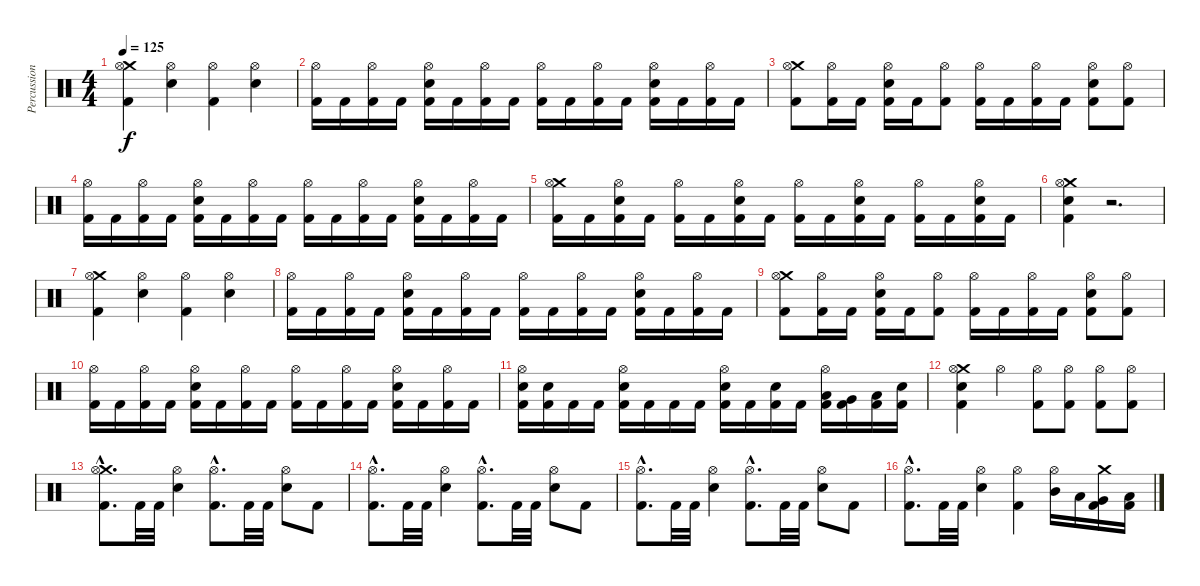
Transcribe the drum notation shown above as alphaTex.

\track ("Percussion" "Percussion") {instrument percussion}
\staff {score}
\articulation defaults
\ts (4 4)
\tempo 125
\clef neutral
\ks c
("Crash medium (hit)" "Hi-Hat (open)" "Kick (hit) 2").4{dy f} ("Hi-Hat (open)" "Electric Snare (hit)").4 ("Hi-Hat (open)" "Kick (hit) 2").4 ("Hi-Hat (open)" "Electric Snare (hit)").4 |
("Hi-Hat (open)" "Kick (hit) 2").16 "Kick (hit) 2".16 ("Hi-Hat (open)" "Kick (hit) 2").16 "Kick (hit) 2".16 ("Hi-Hat (open)" "Electric Snare (hit)" "Kick (hit) 2").16 "Kick (hit) 2".16 ("Hi-Hat (open)" "Kick (hit) 2").16 "Kick (hit) 2".16 ("Hi-Hat (open)" "Kick (hit) 2").16 "Kick (hit) 2".16 ("Hi-Hat (open)" "Kick (hit) 2").16 "Kick (hit) 2".16 ("Hi-Hat (open)" "Electric Snare (hit)" "Kick (hit) 2").16 "Kick (hit) 2".16 ("Hi-Hat (open)" "Kick (hit) 2").16 "Kick (hit) 2".16 |
("Crash medium (hit)" "Hi-Hat (open)" "Kick (hit) 2").8 ("Hi-Hat (open)" "Kick (hit) 2").16 "Kick (hit) 2".16 ("Hi-Hat (open)" "Electric Snare (hit)" "Kick (hit) 2").16 "Kick (hit) 2".16 ("Hi-Hat (open)" "Kick (hit) 2").8 ("Hi-Hat (open)" "Kick (hit) 2").16 "Kick (hit) 2".16 ("Hi-Hat (open)" "Kick (hit) 2").16 "Kick (hit) 2".16 ("Hi-Hat (open)" "Electric Snare (hit)" "Kick (hit) 2").8 ("Hi-Hat (open)" "Kick (hit) 2").8 |
("Hi-Hat (open)" "Kick (hit) 2").16 "Kick (hit) 2".16 ("Hi-Hat (open)" "Kick (hit) 2").16 "Kick (hit) 2".16 ("Hi-Hat (open)" "Electric Snare (hit)" "Kick (hit) 2").16 "Kick (hit) 2".16 ("Hi-Hat (open)" "Kick (hit) 2").16 "Kick (hit) 2".16 ("Hi-Hat (open)" "Kick (hit) 2").16 "Kick (hit) 2".16 ("Hi-Hat (open)" "Kick (hit) 2").16 "Kick (hit) 2".16 ("Hi-Hat (open)" "Electric Snare (hit)" "Kick (hit) 2").16 "Kick (hit) 2".16 ("Hi-Hat (open)" "Kick (hit) 2").16 "Kick (hit) 2".16 |
("Crash medium (hit)" "Hi-Hat (open)" "Kick (hit) 2").16 "Kick (hit) 2".16 ("Hi-Hat (open)" "Electric Snare (hit)" "Kick (hit) 2").16 "Kick (hit) 2".16 ("Hi-Hat (open)" "Kick (hit) 2").16 "Kick (hit) 2".16 ("Hi-Hat (open)" "Electric Snare (hit)" "Kick (hit) 2").16 "Kick (hit) 2".16 ("Hi-Hat (open)" "Kick (hit) 2").16 "Kick (hit) 2".16 ("Hi-Hat (open)" "Electric Snare (hit)" "Kick (hit) 2").16 "Kick (hit) 2".16 ("Hi-Hat (open)" "Kick (hit) 2").16 "Kick (hit) 2".16 ("Hi-Hat (open)" "Electric Snare (hit)" "Kick (hit) 2").16 "Kick (hit) 2".16 |
("Crash medium (hit)" "Hi-Hat (open)" "Electric Snare (hit)" "Kick (hit) 2").4 r.2{d} |
("Crash medium (hit)" "Hi-Hat (open)" "Kick (hit) 2").4 ("Hi-Hat (open)" "Electric Snare (hit)").4 ("Hi-Hat (open)" "Kick (hit) 2").4 ("Hi-Hat (open)" "Electric Snare (hit)").4 |
("Hi-Hat (open)" "Kick (hit) 2").16 "Kick (hit) 2".16 ("Hi-Hat (open)" "Kick (hit) 2").16 "Kick (hit) 2".16 ("Hi-Hat (open)" "Electric Snare (hit)" "Kick (hit) 2").16 "Kick (hit) 2".16 ("Hi-Hat (open)" "Kick (hit) 2").16 "Kick (hit) 2".16 ("Hi-Hat (open)" "Kick (hit) 2").16 "Kick (hit) 2".16 ("Hi-Hat (open)" "Kick (hit) 2").16 "Kick (hit) 2".16 ("Hi-Hat (open)" "Electric Snare (hit)" "Kick (hit) 2").16 "Kick (hit) 2".16 ("Hi-Hat (open)" "Kick (hit) 2").16 "Kick (hit) 2".16 |
("Crash medium (hit)" "Hi-Hat (open)" "Kick (hit) 2").8 ("Hi-Hat (open)" "Kick (hit) 2").16 "Kick (hit) 2".16 ("Hi-Hat (open)" "Electric Snare (hit)" "Kick (hit) 2").16 "Kick (hit) 2".16 ("Hi-Hat (open)" "Kick (hit) 2").8 ("Hi-Hat (open)" "Kick (hit) 2").16 "Kick (hit) 2".16 ("Hi-Hat (open)" "Kick (hit) 2").16 "Kick (hit) 2".16 ("Hi-Hat (open)" "Electric Snare (hit)" "Kick (hit) 2").8 ("Hi-Hat (open)" "Kick (hit) 2").8 |
("Hi-Hat (open)" "Kick (hit) 2").16 "Kick (hit) 2".16 ("Hi-Hat (open)" "Kick (hit) 2").16 "Kick (hit) 2".16 ("Hi-Hat (open)" "Electric Snare (hit)" "Kick (hit) 2").16 "Kick (hit) 2".16 ("Hi-Hat (open)" "Kick (hit) 2").16 "Kick (hit) 2".16 ("Hi-Hat (open)" "Kick (hit) 2").16 "Kick (hit) 2".16 ("Hi-Hat (open)" "Kick (hit) 2").16 "Kick (hit) 2".16 ("Hi-Hat (open)" "Electric Snare (hit)" "Kick (hit) 2").16 "Kick (hit) 2".16 ("Hi-Hat (open)" "Kick (hit) 2").16 "Kick (hit) 2".16 |
("Hi-Hat (open)" "Electric Snare (hit)" "Kick (hit) 2").16 ("Electric Snare (hit)" "Kick (hit) 2").16 "Kick (hit) 2".16 "Kick (hit) 2".16 ("Hi-Hat (open)" "Electric Snare (hit)" "Kick (hit) 2").16 "Kick (hit) 2".16 "Kick (hit) 2".16 "Kick (hit) 2".16 ("Hi-Hat (open)" "Electric Snare (hit)" "Kick (hit) 2").16 "Kick (hit) 2".16 ("Electric Snare (hit)" "Kick (hit) 2").16 "Kick (hit) 2".16 ("Hi-Hat (open)" "Low Tom (hit)" "Kick (hit) 2").16 ("Very Low Tom (hit)" "Kick (hit) 2").16 ("Low Floor Tom (hit)" "Kick (hit) 2").16 ("Electric Snare (hit)" "Kick (hit) 2").16 |
("Crash medium (hit)" "Hi-Hat (open)" "Electric Snare (hit)" "Kick (hit) 2").4 "Hi-Hat (open)".4 ("Hi-Hat (open)" "Kick (hit) 2").8 ("Hi-Hat (open)" "Kick (hit) 2").8 ("Hi-Hat (open)" "Kick (hit) 2").8 ("Hi-Hat (open)" "Kick (hit) 2").8 |
("Crash medium (hit)" "Hi-Hat (open)" "Kick (hit) 2"{hac}).8{d} "Kick (hit) 2".32 "Kick (hit) 2".32 ("Hi-Hat (open)" "Electric Snare (hit)").4 ("Hi-Hat (open)"{hac} "Kick (hit) 2"{hac}).8{d} "Kick (hit) 2".32 "Kick (hit) 2".32 ("Hi-Hat (open)" "Electric Snare (hit)").8 "Kick (hit) 2".8 |
("Hi-Hat (open)"{hac} "Kick (hit) 2"{hac}).8{d} "Kick (hit) 2".32 "Kick (hit) 2".32 ("Hi-Hat (open)" "Electric Snare (hit)").4 ("Hi-Hat (open)"{hac} "Kick (hit) 2"{hac}).8{d} "Kick (hit) 2".32 "Kick (hit) 2".32 ("Hi-Hat (open)" "Electric Snare (hit)").8 "Kick (hit) 2".8 |
("Hi-Hat (open)"{hac} "Kick (hit) 2"{hac}).8{d} "Kick (hit) 2".32 "Kick (hit) 2".32 ("Hi-Hat (open)" "Electric Snare (hit)").4 ("Hi-Hat (open)"{hac} "Kick (hit) 2"{hac}).8{d} "Kick (hit) 2".32 "Kick (hit) 2".32 ("Hi-Hat (open)" "Electric Snare (hit)").8 "Kick (hit) 2".8 |
("Hi-Hat (open)"{hac} "Kick (hit) 2"{hac}).8{d} "Kick (hit) 2".32 "Kick (hit) 2".32 ("Hi-Hat (open)" "Electric Snare (hit)").4 ("Hi-Hat (open)" "Kick (hit) 2").4 ("Hi-Hat (open)" "Mid Tom (hit)").16 "Low Tom (hit)".16 ("Crash medium (hit)" "Very Low Tom (hit)" "Kick (hit) 2").16 ("Low Floor Tom (hit)" "Kick (hit) 2").16
